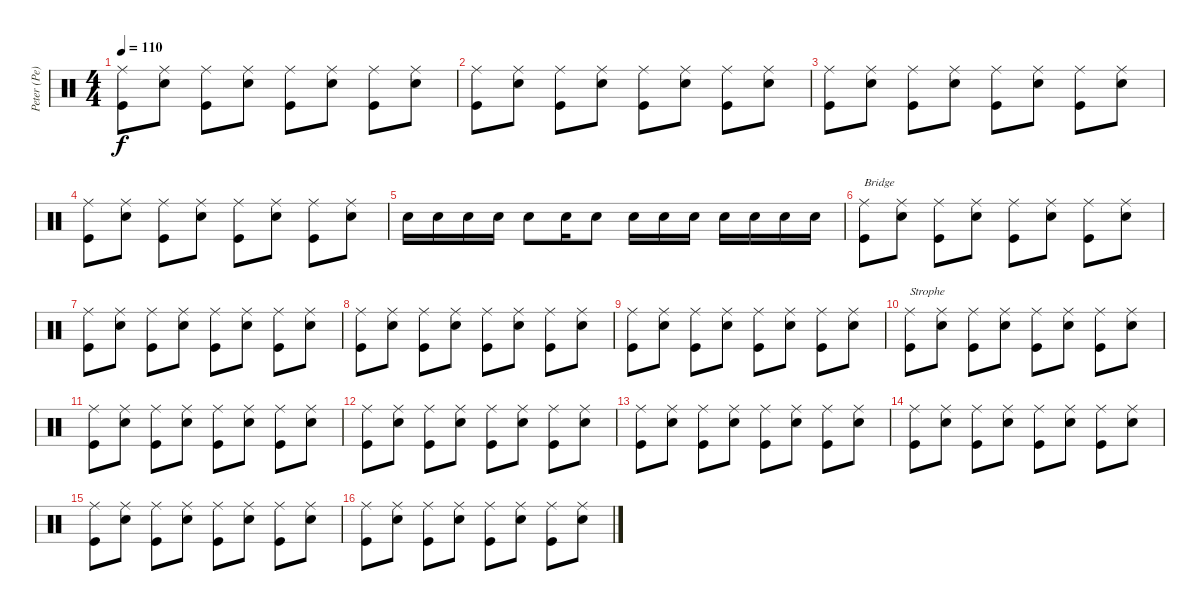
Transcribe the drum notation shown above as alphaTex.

\track ("Peter (Pe) Schorowsky" "Peter (Pe)") {instrument percussion}
\staff {score}
\articulation defaults
\ts (4 4)
\tempo 110
\clef neutral
\ks c
("Ride (middle)" "Kick (hit)").8{dy f} ("Ride (middle)" "Snare (hit) 2").8 ("Ride (middle)" "Kick (hit)").8 ("Ride (middle)" "Snare (hit) 2").8 ("Ride (middle)" "Kick (hit)").8 ("Ride (middle)" "Snare (hit) 2").8 ("Ride (middle)" "Kick (hit)").8 ("Ride (middle)" "Snare (hit) 2").8 |
("Ride (middle)" "Kick (hit)").8 ("Ride (middle)" "Snare (hit) 2").8 ("Ride (middle)" "Kick (hit)").8 ("Ride (middle)" "Snare (hit) 2").8 ("Ride (middle)" "Kick (hit)").8 ("Ride (middle)" "Snare (hit) 2").8 ("Ride (middle)" "Kick (hit)").8 ("Ride (middle)" "Snare (hit) 2").8 |
("Ride (middle)" "Kick (hit)").8 ("Ride (middle)" "Snare (hit) 2").8 ("Ride (middle)" "Kick (hit)").8 ("Ride (middle)" "Snare (hit) 2").8 ("Ride (middle)" "Kick (hit)").8 ("Ride (middle)" "Snare (hit) 2").8 ("Ride (middle)" "Kick (hit)").8 ("Ride (middle)" "Snare (hit) 2").8 |
("Ride (middle)" "Kick (hit)").8 ("Ride (middle)" "Snare (hit) 2").8 ("Ride (middle)" "Kick (hit)").8 ("Ride (middle)" "Snare (hit) 2").8 ("Ride (middle)" "Kick (hit)").8 ("Ride (middle)" "Snare (hit) 2").8 ("Ride (middle)" "Kick (hit)").8 ("Ride (middle)" "Snare (hit) 2").8 |
"Snare (hit) 2".16 "Snare (hit) 2".16 "Snare (hit) 2".16 "Snare (hit) 2".16 "Snare (hit) 2".8 "Snare (hit) 2".16 "Snare (hit) 2".8 "Snare (hit) 2".16 "Snare (hit) 2".16 "Snare (hit) 2".16 "Snare (hit) 2".16 "Snare (hit) 2".16 "Snare (hit) 2".16 "Snare (hit) 2".16 |
("Ride (middle)" "Kick (hit)").8{txt "Bridge"} ("Ride (middle)" "Snare (hit) 2").8 ("Ride (middle)" "Kick (hit)").8 ("Ride (middle)" "Snare (hit) 2").8 ("Ride (middle)" "Kick (hit)").8 ("Ride (middle)" "Snare (hit) 2").8 ("Ride (middle)" "Kick (hit)").8 ("Ride (middle)" "Snare (hit) 2").8 |
("Ride (middle)" "Kick (hit)").8 ("Ride (middle)" "Snare (hit) 2").8 ("Ride (middle)" "Kick (hit)").8 ("Ride (middle)" "Snare (hit) 2").8 ("Ride (middle)" "Kick (hit)").8 ("Ride (middle)" "Snare (hit) 2").8 ("Ride (middle)" "Kick (hit)").8 ("Ride (middle)" "Snare (hit) 2").8 |
("Ride (middle)" "Kick (hit)").8 ("Ride (middle)" "Snare (hit) 2").8 ("Ride (middle)" "Kick (hit)").8 ("Ride (middle)" "Snare (hit) 2").8 ("Ride (middle)" "Kick (hit)").8 ("Ride (middle)" "Snare (hit) 2").8 ("Ride (middle)" "Kick (hit)").8 ("Ride (middle)" "Snare (hit) 2").8 |
("Ride (middle)" "Kick (hit)").8 ("Ride (middle)" "Snare (hit) 2").8 ("Ride (middle)" "Kick (hit)").8 ("Ride (middle)" "Snare (hit) 2").8 ("Ride (middle)" "Kick (hit)").8 ("Ride (middle)" "Snare (hit) 2").8 ("Ride (middle)" "Kick (hit)").8 ("Ride (middle)" "Snare (hit) 2").8 |
("Ride (middle)" "Kick (hit)").8{txt "Strophe"} ("Ride (middle)" "Snare (hit) 2").8 ("Ride (middle)" "Kick (hit)").8 ("Ride (middle)" "Snare (hit) 2").8 ("Ride (middle)" "Kick (hit)").8 ("Ride (middle)" "Snare (hit) 2").8 ("Ride (middle)" "Kick (hit)").8 ("Ride (middle)" "Snare (hit) 2").8 |
("Ride (middle)" "Kick (hit)").8 ("Ride (middle)" "Snare (hit) 2").8 ("Ride (middle)" "Kick (hit)").8 ("Ride (middle)" "Snare (hit) 2").8 ("Ride (middle)" "Kick (hit)").8 ("Ride (middle)" "Snare (hit) 2").8 ("Ride (middle)" "Kick (hit)").8 ("Ride (middle)" "Snare (hit) 2").8 |
("Ride (middle)" "Kick (hit)").8 ("Ride (middle)" "Snare (hit) 2").8 ("Ride (middle)" "Kick (hit)").8 ("Ride (middle)" "Snare (hit) 2").8 ("Ride (middle)" "Kick (hit)").8 ("Ride (middle)" "Snare (hit) 2").8 ("Ride (middle)" "Kick (hit)").8 ("Ride (middle)" "Snare (hit) 2").8 |
("Ride (middle)" "Kick (hit)").8 ("Ride (middle)" "Snare (hit) 2").8 ("Ride (middle)" "Kick (hit)").8 ("Ride (middle)" "Snare (hit) 2").8 ("Ride (middle)" "Kick (hit)").8 ("Ride (middle)" "Snare (hit) 2").8 ("Ride (middle)" "Kick (hit)").8 ("Ride (middle)" "Snare (hit) 2").8 |
("Ride (middle)" "Kick (hit)").8 ("Ride (middle)" "Snare (hit) 2").8 ("Ride (middle)" "Kick (hit)").8 ("Ride (middle)" "Snare (hit) 2").8 ("Ride (middle)" "Kick (hit)").8 ("Ride (middle)" "Snare (hit) 2").8 ("Ride (middle)" "Kick (hit)").8 ("Ride (middle)" "Snare (hit) 2").8 |
("Ride (middle)" "Kick (hit)").8 ("Ride (middle)" "Snare (hit) 2").8 ("Ride (middle)" "Kick (hit)").8 ("Ride (middle)" "Snare (hit) 2").8 ("Ride (middle)" "Kick (hit)").8 ("Ride (middle)" "Snare (hit) 2").8 ("Ride (middle)" "Kick (hit)").8 ("Ride (middle)" "Snare (hit) 2").8 |
("Ride (middle)" "Kick (hit)").8 ("Ride (middle)" "Snare (hit) 2").8 ("Ride (middle)" "Kick (hit)").8 ("Ride (middle)" "Snare (hit) 2").8 ("Ride (middle)" "Kick (hit)").8 ("Ride (middle)" "Snare (hit) 2").8 ("Ride (middle)" "Kick (hit)").8 ("Ride (middle)" "Snare (hit) 2").8
